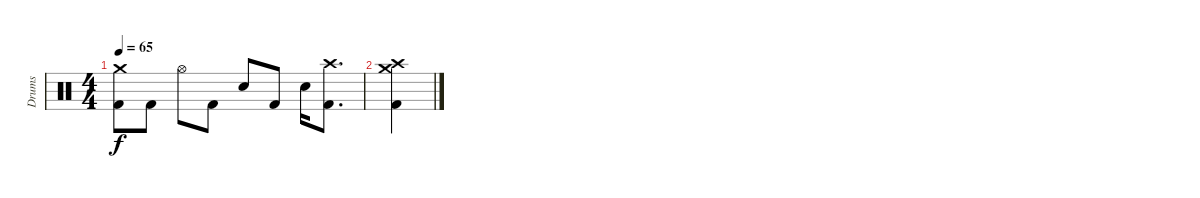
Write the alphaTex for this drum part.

\track ("Drums" "Drums") {instrument percussion}
\staff {score}
\articulation defaults
\ts (4 4)
\tempo 65
\clef neutral
\ks c
("Crash medium (hit)" "Kick (hit) 2").8{dy f} "Kick (hit) 2".8 "Hi-Hat (open)".8 "Kick (hit) 2".8 "Snare (hit) 2".8 "Kick (hit) 2".8 "Snare (hit) 2".16 ("Crash high (hit)" "Kick (hit) 2").8{d} |
("Crash high (hit)" "Crash medium (hit)" "Kick (hit) 2").4
